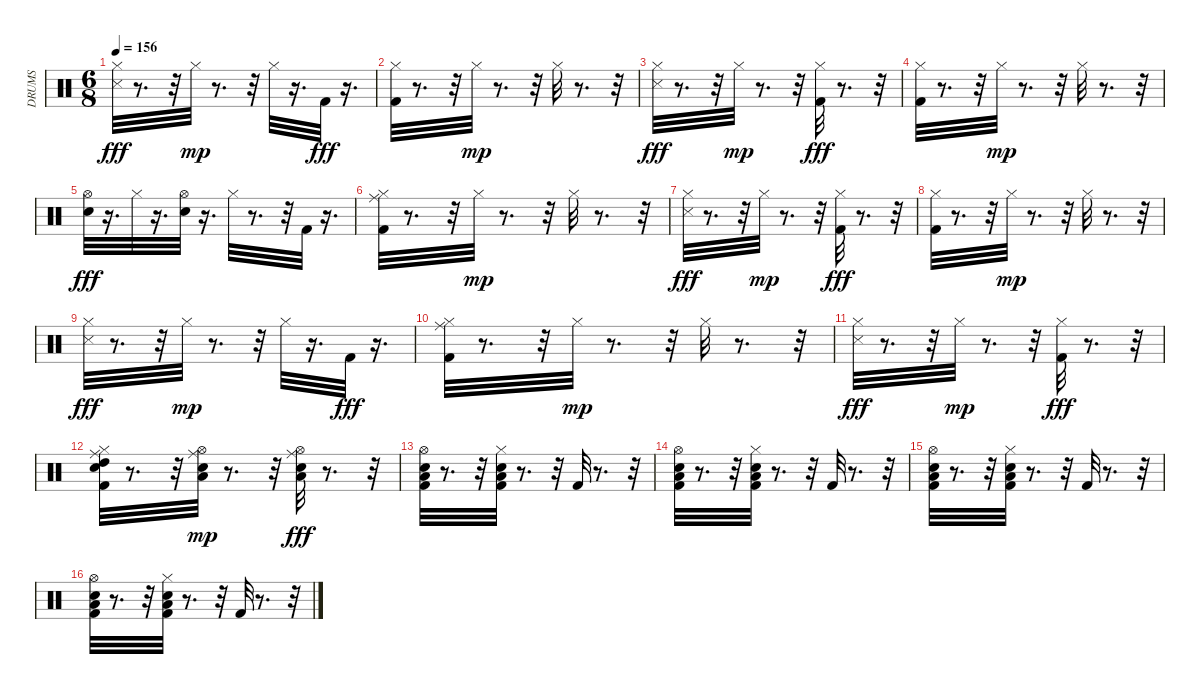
\track ("DRUMS" "DRUMS") {instrument percussion}
\staff {score}
\articulation defaults
\ts (6 8)
\tempo 156
\clef neutral
\ks c
("Hi-Hat (closed)" "Snare (side stick) 3").32{dy fff} r.8{d} r.32 "Hi-Hat (closed)".32{dy mp} r.8{d} r.32 "Hi-Hat (closed)".32 r.16{d} "Kick (hit) 2".32{dy fff} r.16{d} |
("Hi-Hat (closed)" "Kick (hit) 2").32 r.8{d} r.32 "Hi-Hat (closed)".32{dy mp} r.8{d} r.32 "Hi-Hat (closed)".32 r.8{d} r.32 |
("Snare (side stick) 3" "Hi-Hat (closed)").32{dy fff} r.8{d} r.32 "Hi-Hat (closed)".32{dy mp} r.8{d} r.32 ("Hi-Hat (closed)" "Kick (hit) 2").32{dy fff} r.8{d} r.32 |
("Hi-Hat (closed)" "Kick (hit) 2").32 r.8{d} r.32 "Hi-Hat (closed)".32{dy mp} r.8{d} r.32 "Hi-Hat (closed)".32 r.8{d} r.32 |
("Hi-Hat (open)" "Snare (hit) 2").32{dy fff} r.16{d} "Hi-Hat (closed)".32 r.16{d} ("Hi-Hat (open)" "Snare (hit) 2").32 r.16{d} "Hi-Hat (closed)".32 r.8{d} r.32 "Kick (hit) 2".32 r.16{d} |
("Ride (middle)" "Hi-Hat (closed)" "Kick (hit) 2").32 r.8{d} r.32 "Hi-Hat (closed)".32{dy mp} r.8{d} r.32 "Hi-Hat (closed)".32 r.8{d} r.32 |
("Hi-Hat (closed)" "Snare (side stick) 3").32{dy fff} r.8{d} r.32 "Hi-Hat (closed)".32{dy mp} r.8{d} r.32 ("Hi-Hat (closed)" "Kick (hit) 2").32{dy fff} r.8{d} r.32 |
("Hi-Hat (closed)" "Kick (hit) 2").32 r.8{d} r.32 "Hi-Hat (closed)".32{dy mp} r.8{d} r.32 "Hi-Hat (closed)".32 r.8{d} r.32 |
("Hi-Hat (closed)" "Snare (side stick) 3").32{dy fff} r.8{d} r.32 "Hi-Hat (closed)".32{dy mp} r.8{d} r.32 "Hi-Hat (closed)".32 r.16{d} "Kick (hit) 2".32{dy fff} r.16{d} |
("Ride (middle)" "Hi-Hat (closed)" "Kick (hit) 2").32 r.8{d} r.32 "Hi-Hat (closed)".32{dy mp} r.8{d} r.32 "Hi-Hat (closed)".32 r.8{d} r.32 |
("Snare (side stick) 3" "Hi-Hat (closed)").32{dy fff} r.8{d} r.32 "Hi-Hat (closed)".32{dy mp} r.8{d} r.32 ("Hi-Hat (closed)" "Kick (hit) 2").32{dy fff} r.8{d} r.32 |
("High Tom (hit)" "Ride (middle)" "Hi-Hat (closed)" "Snare (hit) 2" "Kick (hit) 2").32 r.8{d} r.32 ("Low Tom (hit)" "Ride (middle)" "Hi-Hat (open)" "Snare (hit) 2").32{dy mp} r.8{d} r.32 ("Low Floor Tom (hit)" "Ride (middle)" "Hi-Hat (open)" "Snare (hit) 2").32{dy fff} r.8{d} r.32 |
("Low Tom (hit)" "Hi-Hat (open)" "Snare (hit) 2" "Kick (hit) 2").32 r.8{d} r.32 ("Low Floor Tom (hit)" "Hi-Hat (closed)" "Snare (hit) 2" "Kick (hit) 2").32 r.8{d} r.32 "Kick (hit) 2".32 r.8{d} r.32 |
("Low Tom (hit)" "Hi-Hat (open)" "Snare (hit) 2" "Kick (hit) 2").32 r.8{d} r.32 ("Low Floor Tom (hit)" "Hi-Hat (closed)" "Snare (hit) 2" "Kick (hit) 2").32 r.8{d} r.32 "Kick (hit) 2".32 r.8{d} r.32 |
("Low Tom (hit)" "Hi-Hat (open)" "Snare (hit) 2" "Kick (hit) 2").32 r.8{d} r.32 ("Low Floor Tom (hit)" "Hi-Hat (closed)" "Snare (hit) 2" "Kick (hit) 2").32 r.8{d} r.32 "Kick (hit) 2".32 r.8{d} r.32 |
("Low Tom (hit)" "Hi-Hat (open)" "Snare (hit) 2" "Kick (hit) 2").32 r.8{d} r.32 ("Low Floor Tom (hit)" "Hi-Hat (closed)" "Snare (hit) 2" "Kick (hit) 2").32 r.8{d} r.32 "Kick (hit) 2".32 r.8{d} r.32
